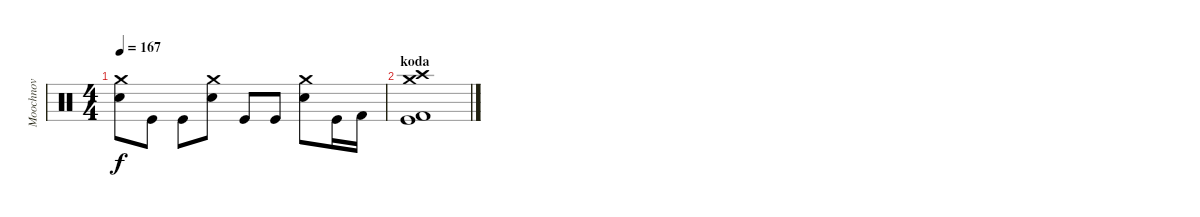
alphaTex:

\track ("Moochnov" "Moochnov") {instrument percussion}
\staff {score}
\articulation defaults
\ts (4 4)
\tempo 167
\clef neutral
\ks c
("Crash medium (hit)" "Snare (hit) 2").8{dy f} "Kick (hit)".8 "Kick (hit)".8 ("Snare (hit) 2" "Crash medium (hit)").8 "Kick (hit)".8 "Kick (hit)".8 ("Snare (hit) 2" "Crash medium (hit)").8 "Kick (hit)".16 "Kick (hit) 2".16 |
\section ("" "koda")
("Crash medium (hit)" "Crash high (hit)" "Kick (hit)" "Kick (hit) 2").1
